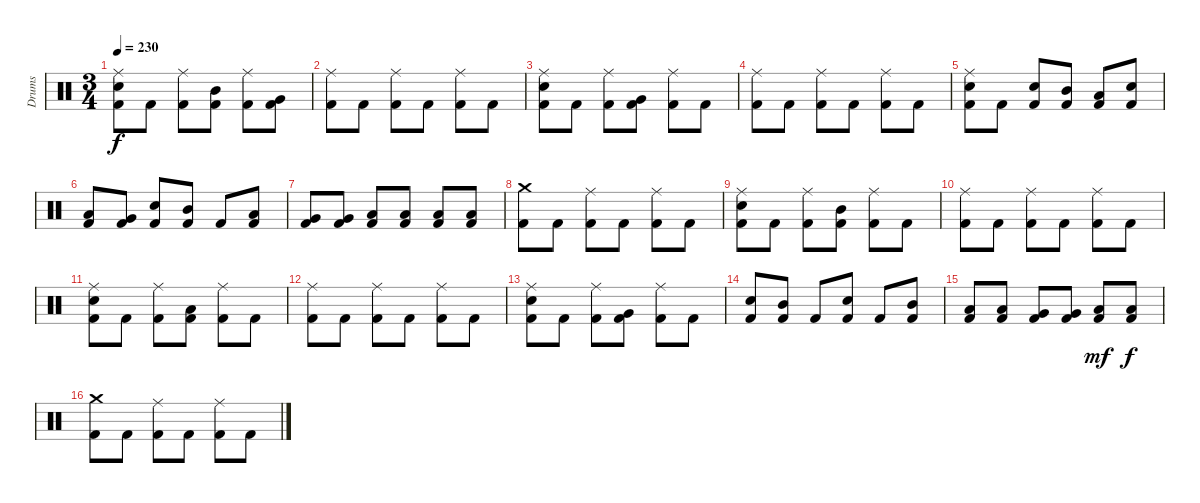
\track ("Drums" "Drums") {instrument percussion}
\staff {score}
\articulation defaults
\ts (3 4)
\tempo 230
\clef neutral
\ks c
("Ride (middle)" "Electric Snare (hit)" "Kick (hit) 2").8{dy f} "Kick (hit) 2".8 ("Ride (middle)" "Kick (hit) 2").8 ("Mid Tom (hit)" "Kick (hit) 2").8 ("Ride (middle)" "Kick (hit) 2").8 ("Very Low Tom (hit)" "Kick (hit) 2").8 |
("Ride (middle)" "Kick (hit) 2").8 "Kick (hit) 2".8 ("Ride (middle)" "Kick (hit) 2").8 "Kick (hit) 2".8 ("Ride (middle)" "Kick (hit) 2").8 "Kick (hit) 2".8 |
("Ride (middle)" "Electric Snare (hit)" "Kick (hit) 2").8 "Kick (hit) 2".8 ("Ride (middle)" "Kick (hit) 2").8 ("Very Low Tom (hit)" "Kick (hit) 2").8 ("Ride (middle)" "Kick (hit) 2").8 "Kick (hit) 2".8 |
("Ride (middle)" "Kick (hit) 2").8 "Kick (hit) 2".8 ("Ride (middle)" "Kick (hit) 2").8 "Kick (hit) 2".8 ("Ride (middle)" "Kick (hit) 2").8 "Kick (hit) 2".8 |
("Ride (middle)" "Electric Snare (hit)" "Kick (hit) 2").8 "Kick (hit) 2".8 ("Electric Snare (hit)" "Kick (hit) 2").8 ("Mid Tom (hit)" "Kick (hit) 2").8 ("Low Tom (hit)" "Kick (hit) 2").8 ("Electric Snare (hit)" "Kick (hit) 2").8 |
("Low Tom (hit)" "Kick (hit) 2").8 ("Very Low Tom (hit)" "Kick (hit) 2").8 ("Electric Snare (hit)" "Kick (hit) 2").8 ("Mid Tom (hit)" "Kick (hit) 2").8 "Kick (hit) 2".8 ("Low Tom (hit)" "Kick (hit) 2").8 |
("Very Low Tom (hit)" "Kick (hit) 2").8 ("Very Low Tom (hit)" "Kick (hit) 2").8 ("Low Tom (hit)" "Kick (hit) 2").8 ("Low Tom (hit)" "Kick (hit) 2").8 ("Low Floor Tom (hit)" "Kick (hit) 2").8 ("Low Floor Tom (hit)" "Kick (hit) 2").8 |
("Crash medium (hit)" "Kick (hit) 2").8 "Kick (hit) 2".8 ("Ride (middle)" "Kick (hit) 2").8 "Kick (hit) 2".8 ("Ride (middle)" "Kick (hit) 2").8 "Kick (hit) 2".8 |
("Ride (middle)" "Electric Snare (hit)" "Kick (hit) 2").8 "Kick (hit) 2".8 ("Ride (middle)" "Kick (hit) 2").8 ("Mid Tom (hit)" "Kick (hit) 2").8 ("Ride (middle)" "Kick (hit) 2").8 "Kick (hit) 2".8 |
("Ride (middle)" "Kick (hit) 2").8 "Kick (hit) 2".8 ("Ride (middle)" "Kick (hit) 2").8 "Kick (hit) 2".8 ("Ride (middle)" "Kick (hit) 2").8 "Kick (hit) 2".8 |
("Ride (middle)" "Electric Snare (hit)" "Kick (hit) 2").8 "Kick (hit) 2".8 ("Ride (middle)" "Kick (hit) 2").8 ("Low Tom (hit)" "Kick (hit) 2").8 ("Ride (middle)" "Kick (hit) 2").8 "Kick (hit) 2".8 |
("Ride (middle)" "Kick (hit) 2").8 "Kick (hit) 2".8 ("Ride (middle)" "Kick (hit) 2").8 "Kick (hit) 2".8 ("Ride (middle)" "Kick (hit) 2").8 "Kick (hit) 2".8 |
("Ride (middle)" "Electric Snare (hit)" "Kick (hit) 2").8 "Kick (hit) 2".8 ("Ride (middle)" "Kick (hit) 2").8 ("Very Low Tom (hit)" "Kick (hit) 2").8 ("Ride (middle)" "Kick (hit) 2").8 "Kick (hit) 2".8 |
("Electric Snare (hit)" "Kick (hit) 2").8 ("Mid Tom (hit)" "Kick (hit) 2").8 "Kick (hit) 2".8 ("Electric Snare (hit)" "Kick (hit) 2").8 "Kick (hit) 2".8 ("Mid Tom (hit)" "Kick (hit) 2").8 |
("Low Tom (hit)" "Kick (hit) 2").8 ("Low Tom (hit)" "Kick (hit) 2").8 ("Very Low Tom (hit)" "Kick (hit) 2").8 ("Very Low Tom (hit)" "Kick (hit) 2").8 ("Low Floor Tom (hit)" "Kick (hit) 2").8{dy mf} ("Low Floor Tom (hit)" "Kick (hit) 2").8{dy f} |
("Crash medium (hit)" "Kick (hit) 2").8 "Kick (hit) 2".8 ("Ride (middle)" "Kick (hit) 2").8 "Kick (hit) 2".8 ("Ride (middle)" "Kick (hit) 2").8 "Kick (hit) 2".8
